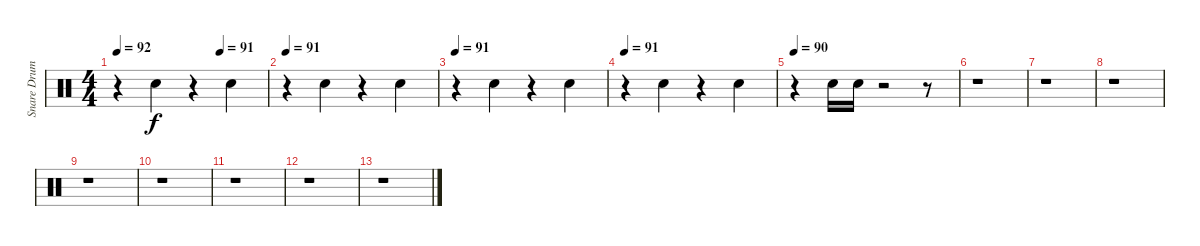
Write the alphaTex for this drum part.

\track ("Snare Drums" "Snare Drum") {instrument percussion}
\staff {score}
\articulation defaults
\ts (4 4)
\tempo 92
\tempo (91 0.6875)
\clef neutral
\ks c
r.4{dy f} "Electric Snare (hit)".4 r.4 "Electric Snare (hit)".4 |
\tempo 91
r.4 "Electric Snare (hit)".4 r.4 "Electric Snare (hit)".4 |
\tempo 91
r.4 "Electric Snare (hit)".4 r.4 "Electric Snare (hit)".4 |
\tempo 91
r.4 "Electric Snare (hit)".4 r.4 "Electric Snare (hit)".4 |
\tempo 90
r.4 "Electric Snare (hit)".16 "Electric Snare (hit)".16 r.2 r.8 |
r.1 |
r.1 |
r.1 |
r.1 |
r.1 |
r.1 |
r.1 |
r.1
